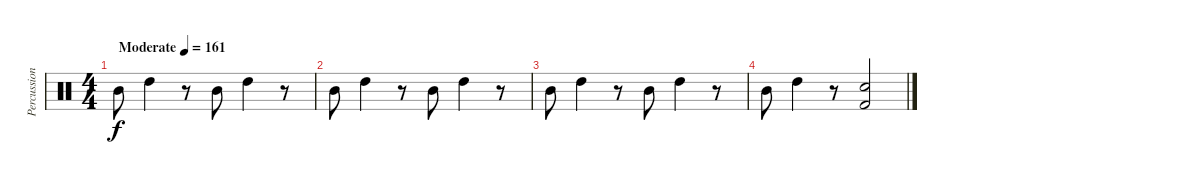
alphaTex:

\track ("Percussion" "Percussion") {instrument percussion}
\staff {score}
\articulation defaults
\ts (4 4)
\tempo (161 "Moderate")
\clef neutral
\ks c "Mid Tom (hit)".8{dy f} "High Tom (hit)".4
r.8 "Mid Tom (hit)".8 "High Tom (hit)".4 r.8 |
"Mid Tom (hit)".8 "High Tom (hit)".4 r.8 "Mid Tom (hit)".8 "High Tom (hit)".4 r.8 |
"Mid Tom (hit)".8 "High Tom (hit)".4 r.8 "Mid Tom (hit)".8 "High Tom (hit)".4 r.8 |
"Mid Tom (hit)".8 "High Tom (hit)".4 r.8 ("Snare (hit) 2" "Kick (hit) 2").2
